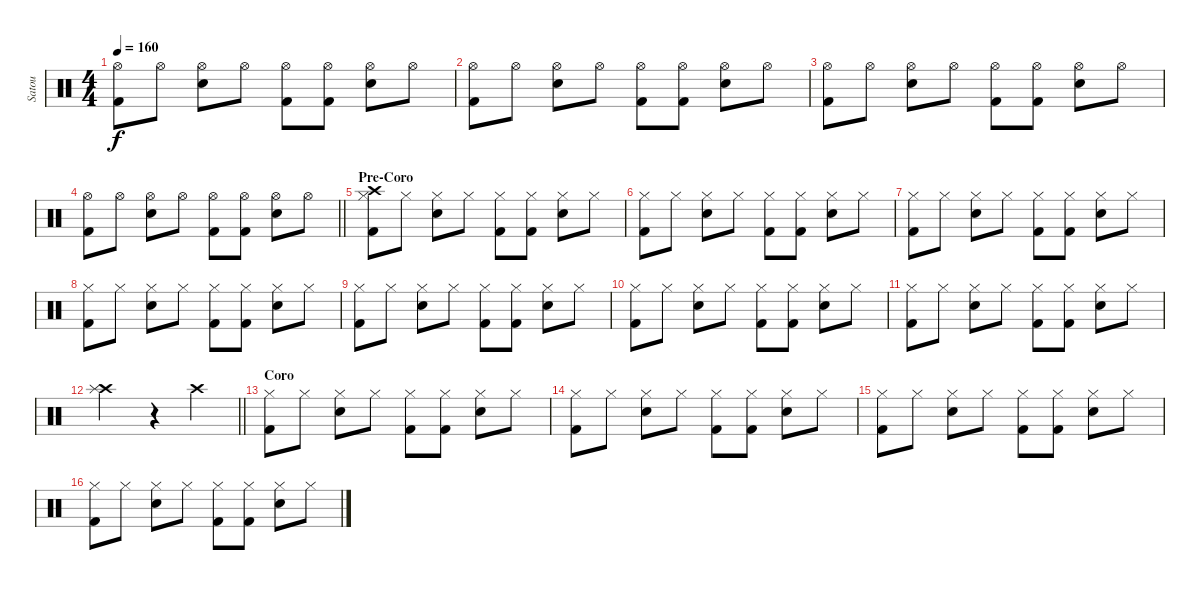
\track ("Satou" "Satou") {instrument percussion}
\staff {score}
\articulation defaults
\ts (4 4)
\tempo 160
\clef neutral
\ks c
("Hi-Hat (open)" "Kick (hit) 2").8{dy f} "Hi-Hat (open)".8 ("Hi-Hat (open)" "Snare (hit) 2").8 "Hi-Hat (open)".8 ("Hi-Hat (open)" "Kick (hit) 2").8 ("Hi-Hat (open)" "Kick (hit) 2").8 ("Hi-Hat (open)" "Snare (hit) 2").8 "Hi-Hat (open)".8 |
("Hi-Hat (open)" "Kick (hit) 2").8 "Hi-Hat (open)".8 ("Hi-Hat (open)" "Snare (hit) 2").8 "Hi-Hat (open)".8 ("Hi-Hat (open)" "Kick (hit) 2").8 ("Hi-Hat (open)" "Kick (hit) 2").8 ("Hi-Hat (open)" "Snare (hit) 2").8 "Hi-Hat (open)".8 |
("Hi-Hat (open)" "Kick (hit) 2").8 "Hi-Hat (open)".8 ("Hi-Hat (open)" "Snare (hit) 2").8 "Hi-Hat (open)".8 ("Hi-Hat (open)" "Kick (hit) 2").8 ("Hi-Hat (open)" "Kick (hit) 2").8 ("Hi-Hat (open)" "Snare (hit) 2").8 "Hi-Hat (open)".8 |
\barLineRight lightlight
("Hi-Hat (open)" "Kick (hit) 2").8 "Hi-Hat (open)".8 ("Hi-Hat (open)" "Snare (hit) 2").8 "Hi-Hat (open)".8 ("Hi-Hat (open)" "Kick (hit) 2").8 ("Hi-Hat (open)" "Kick (hit) 2").8 ("Hi-Hat (open)" "Snare (hit) 2").8 "Hi-Hat (open)".8 |
\section ("" "Pre-Coro")
("Hi-Hat (closed)" "Kick (hit) 2" "Crash high (hit)").8 "Hi-Hat (closed)".8 ("Hi-Hat (closed)" "Snare (hit) 2").8 "Hi-Hat (closed)".8 ("Hi-Hat (closed)" "Kick (hit) 2").8 ("Hi-Hat (closed)" "Kick (hit) 2").8 ("Hi-Hat (closed)" "Snare (hit) 2").8 "Hi-Hat (closed)".8 |
("Hi-Hat (closed)" "Kick (hit) 2").8 "Hi-Hat (closed)".8 ("Hi-Hat (closed)" "Snare (hit) 2").8 "Hi-Hat (closed)".8 ("Hi-Hat (closed)" "Kick (hit) 2").8 ("Hi-Hat (closed)" "Kick (hit) 2").8 ("Hi-Hat (closed)" "Snare (hit) 2").8 "Hi-Hat (closed)".8 |
("Hi-Hat (closed)" "Kick (hit) 2").8 "Hi-Hat (closed)".8 ("Hi-Hat (closed)" "Snare (hit) 2").8 "Hi-Hat (closed)".8 ("Hi-Hat (closed)" "Kick (hit) 2").8 ("Hi-Hat (closed)" "Kick (hit) 2").8 ("Hi-Hat (closed)" "Snare (hit) 2").8 "Hi-Hat (closed)".8 |
("Hi-Hat (closed)" "Kick (hit) 2").8 "Hi-Hat (closed)".8 ("Hi-Hat (closed)" "Snare (hit) 2").8 "Hi-Hat (closed)".8 ("Hi-Hat (closed)" "Kick (hit) 2").8 ("Hi-Hat (closed)" "Kick (hit) 2").8 ("Hi-Hat (closed)" "Snare (hit) 2").8 "Hi-Hat (closed)".8 |
("Hi-Hat (closed)" "Kick (hit) 2").8 "Hi-Hat (closed)".8 ("Hi-Hat (closed)" "Snare (hit) 2").8 "Hi-Hat (closed)".8 ("Hi-Hat (closed)" "Kick (hit) 2").8 ("Hi-Hat (closed)" "Kick (hit) 2").8 ("Hi-Hat (closed)" "Snare (hit) 2").8 "Hi-Hat (closed)".8 |
("Hi-Hat (closed)" "Kick (hit) 2").8 "Hi-Hat (closed)".8 ("Hi-Hat (closed)" "Snare (hit) 2").8 "Hi-Hat (closed)".8 ("Hi-Hat (closed)" "Kick (hit) 2").8 ("Hi-Hat (closed)" "Kick (hit) 2").8 ("Hi-Hat (closed)" "Snare (hit) 2").8 "Hi-Hat (closed)".8 |
("Hi-Hat (closed)" "Kick (hit) 2").8 "Hi-Hat (closed)".8 ("Hi-Hat (closed)" "Snare (hit) 2").8 "Hi-Hat (closed)".8 ("Hi-Hat (closed)" "Kick (hit) 2").8 ("Hi-Hat (closed)" "Kick (hit) 2").8 ("Hi-Hat (closed)" "Snare (hit) 2").8 "Hi-Hat (closed)".8 |
\barLineRight lightlight
("Crash high (hit)" "Splash (hit)").2 r.4 "Crash high (hit)".4 |
\section ("" "Coro")
("Hi-Hat (closed)" "Kick (hit) 2").8 "Hi-Hat (closed)".8 ("Hi-Hat (closed)" "Snare (hit) 2").8 "Hi-Hat (closed)".8 ("Hi-Hat (closed)" "Kick (hit) 2").8 ("Hi-Hat (closed)" "Kick (hit) 2").8 ("Hi-Hat (closed)" "Snare (hit) 2").8 "Hi-Hat (closed)".8 |
("Hi-Hat (closed)" "Kick (hit) 2").8 "Hi-Hat (closed)".8 ("Hi-Hat (closed)" "Snare (hit) 2").8 "Hi-Hat (closed)".8 ("Hi-Hat (closed)" "Kick (hit) 2").8 ("Hi-Hat (closed)" "Kick (hit) 2").8 ("Hi-Hat (closed)" "Snare (hit) 2").8 "Hi-Hat (closed)".8 |
("Hi-Hat (closed)" "Kick (hit) 2").8 "Hi-Hat (closed)".8 ("Hi-Hat (closed)" "Snare (hit) 2").8 "Hi-Hat (closed)".8 ("Hi-Hat (closed)" "Kick (hit) 2").8 ("Hi-Hat (closed)" "Kick (hit) 2").8 ("Hi-Hat (closed)" "Snare (hit) 2").8 "Hi-Hat (closed)".8 |
("Hi-Hat (closed)" "Kick (hit) 2").8 "Hi-Hat (closed)".8 ("Hi-Hat (closed)" "Snare (hit) 2").8 "Hi-Hat (closed)".8 ("Hi-Hat (closed)" "Kick (hit) 2").8 ("Hi-Hat (closed)" "Kick (hit) 2").8 ("Hi-Hat (closed)" "Snare (hit) 2").8 "Hi-Hat (closed)".8
